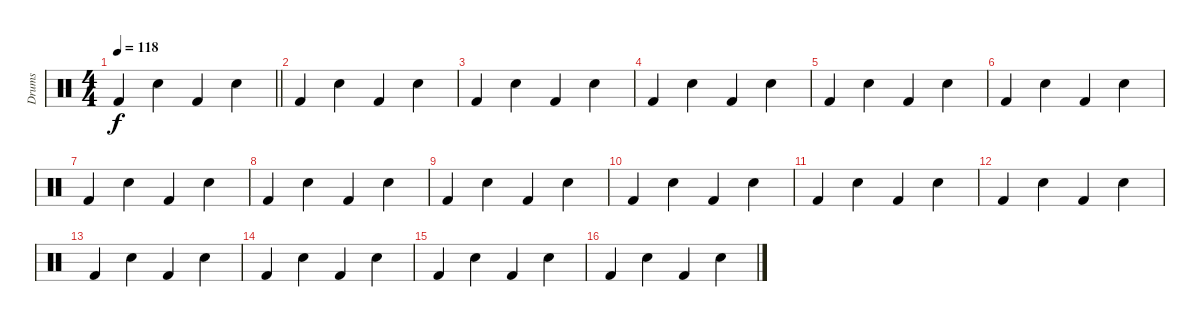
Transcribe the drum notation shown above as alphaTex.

\track ("Drums" "Drums") {instrument percussion}
\staff {score}
\articulation defaults
\ts (4 4)
\tempo 118
\clef neutral
\barLineRight lightlight
\ks c "Kick (hit) 2".4{dy f} "Snare (hit) 2".4 "Kick (hit) 2".4 "Snare (hit) 2".4
|
"Kick (hit) 2".4 "Snare (hit) 2".4 "Kick (hit) 2".4 "Snare (hit) 2".4 |
"Kick (hit) 2".4 "Snare (hit) 2".4 "Kick (hit) 2".4 "Snare (hit) 2".4 |
"Kick (hit) 2".4 "Snare (hit) 2".4 "Kick (hit) 2".4 "Snare (hit) 2".4 |
"Kick (hit) 2".4 "Snare (hit) 2".4 "Kick (hit) 2".4 "Snare (hit) 2".4 |
"Kick (hit) 2".4 "Snare (hit) 2".4 "Kick (hit) 2".4 "Snare (hit) 2".4 |
"Kick (hit) 2".4 "Snare (hit) 2".4 "Kick (hit) 2".4 "Snare (hit) 2".4 |
"Kick (hit) 2".4 "Snare (hit) 2".4 "Kick (hit) 2".4 "Snare (hit) 2".4 |
"Kick (hit) 2".4 "Snare (hit) 2".4 "Kick (hit) 2".4 "Snare (hit) 2".4 |
"Kick (hit) 2".4 "Snare (hit) 2".4 "Kick (hit) 2".4 "Snare (hit) 2".4 |
"Kick (hit) 2".4 "Snare (hit) 2".4 "Kick (hit) 2".4 "Snare (hit) 2".4 |
"Kick (hit) 2".4 "Snare (hit) 2".4 "Kick (hit) 2".4 "Snare (hit) 2".4 |
"Kick (hit) 2".4 "Snare (hit) 2".4 "Kick (hit) 2".4 "Snare (hit) 2".4 |
"Kick (hit) 2".4 "Snare (hit) 2".4 "Kick (hit) 2".4 "Snare (hit) 2".4 |
"Kick (hit) 2".4 "Snare (hit) 2".4 "Kick (hit) 2".4 "Snare (hit) 2".4 |
"Kick (hit) 2".4 "Snare (hit) 2".4 "Kick (hit) 2".4 "Snare (hit) 2".4
